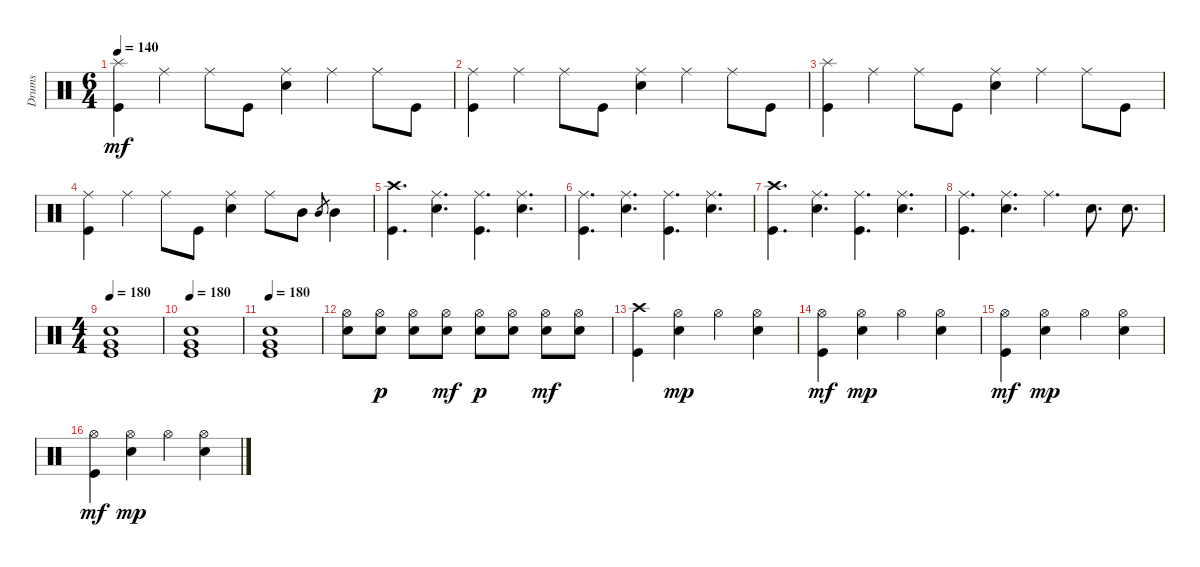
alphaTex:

\track ("Drums" "Drums") {instrument percussion}
\staff {score}
\articulation defaults
\ts (6 4)
\tempo 140
\clef neutral
\ks c
("Splash (hit)" "Kick (hit)").4{dy mf} "Ride (middle)".4 "Ride (middle)".8 "Kick (hit)".8 ("Ride (middle)" "Electric Snare (hit)").4 "Ride (middle)".4 "Ride (middle)".8 "Kick (hit)".8 |
("Ride (middle)" "Kick (hit)").4 "Ride (middle)".4 "Ride (middle)".8 "Kick (hit)".8 ("Ride (middle)" "Electric Snare (hit)").4 "Ride (middle)".4 "Ride (middle)".8 "Kick (hit)".8 |
("Splash (hit)" "Kick (hit)").4 "Ride (middle)".4 "Ride (middle)".8 "Kick (hit)".8 ("Ride (middle)" "Electric Snare (hit)").4 "Ride (middle)".4 "Ride (middle)".8 "Kick (hit)".8 |
("Ride (middle)" "Kick (hit)").4 "Ride (middle)".4 "Ride (middle)".8 "Kick (hit)".8 ("Ride (middle)" "Electric Snare (hit)").4 "Ride (middle)".8 "Mid Tom (hit)".8 "Mid Tom (hit)".8{gr} "Mid Tom (hit)".4 |
("Crash high (hit)" "Kick (hit)").4{d} ("Ride (middle)" "Electric Snare (hit)").4{d} ("Ride (middle)" "Kick (hit)").4{d} ("Ride (middle)" "Electric Snare (hit)").4{d} |
("Ride (middle)" "Kick (hit)").4{d} ("Ride (middle)" "Electric Snare (hit)").4{d} ("Ride (middle)" "Kick (hit)").4{d} ("Ride (middle)" "Electric Snare (hit)").4{d} |
("Crash high (hit)" "Kick (hit)").4{d} ("Ride (middle)" "Electric Snare (hit)").4{d} ("Ride (middle)" "Kick (hit)").4{d} ("Ride (middle)" "Electric Snare (hit)").4{d} |
("Ride (middle)" "Kick (hit)").4{d} ("Ride (middle)" "Electric Snare (hit)").4{d} "Ride (middle)".4{d} "Electric Snare (hit)".8{d} "Electric Snare (hit)".8{d} |
\ts (4 4)
\tempo 180
("Electric Snare (hit)" "Very Low Tom (hit)" "Kick (hit)").1 |
\tempo 180
("Electric Snare (hit)" "Very Low Tom (hit)" "Kick (hit)").1 |
\tempo 180
("Electric Snare (hit)" "Very Low Tom (hit)" "Kick (hit)").1 |
("Hi-Hat (open)" "Electric Snare (hit)").8 ("Hi-Hat (open)" "Electric Snare (hit)").8{dy p} ("Hi-Hat (open)" "Electric Snare (hit)").8 ("Hi-Hat (open)" "Electric Snare (hit)").8{dy mf} ("Hi-Hat (open)" "Electric Snare (hit)").8{dy p} ("Hi-Hat (open)" "Electric Snare (hit)").8 ("Hi-Hat (open)" "Electric Snare (hit)").8{dy mf} ("Hi-Hat (open)" "Electric Snare (hit)").8 |
("Crash high (hit)" "Kick (hit)").4 ("Hi-Hat (open)" "Electric Snare (hit)").4{dy mp} "Hi-Hat (open)".4 ("Hi-Hat (open)" "Electric Snare (hit)").4 |
("Hi-Hat (open)" "Kick (hit)").4{dy mf} ("Hi-Hat (open)" "Electric Snare (hit)").4{dy mp} "Hi-Hat (open)".4 ("Hi-Hat (open)" "Electric Snare (hit)").4 |
("Hi-Hat (open)" "Kick (hit)").4{dy mf} ("Hi-Hat (open)" "Electric Snare (hit)").4{dy mp} "Hi-Hat (open)".4 ("Hi-Hat (open)" "Electric Snare (hit)").4 |
("Hi-Hat (open)" "Kick (hit)").4{dy mf} ("Hi-Hat (open)" "Electric Snare (hit)").4{dy mp} "Hi-Hat (open)".4 ("Hi-Hat (open)" "Electric Snare (hit)").4
